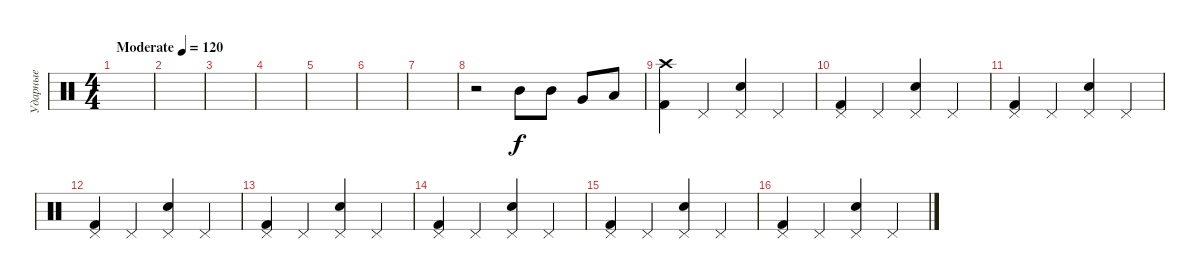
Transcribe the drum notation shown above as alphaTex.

\track ("Ударные" "Ударные") {instrument percussion}
\staff {score}
\articulation defaults
\ts (4 4)
\tempo (120 "Moderate")
\clef neutral
\ks c
|
|
|
|
|
|
|
r.2 "Mid Tom (hit)".8 "Mid Tom (hit)".8 "Very Low Tom (hit)".8 "Low Floor Tom (hit)".8 |
("Crash high (hit)" "Kick (hit) 2").4 "Pedal Hi-Hat (hit)".4 ("Pedal Hi-Hat (hit)" "Snare (hit) 2").4 "Pedal Hi-Hat (hit)".4 |
("Pedal Hi-Hat (hit)" "Kick (hit) 2").4 "Pedal Hi-Hat (hit)".4 ("Pedal Hi-Hat (hit)" "Snare (hit) 2").4 "Pedal Hi-Hat (hit)".4 |
("Pedal Hi-Hat (hit)" "Kick (hit) 2").4 "Pedal Hi-Hat (hit)".4 ("Pedal Hi-Hat (hit)" "Snare (hit) 2").4 "Pedal Hi-Hat (hit)".4 |
("Pedal Hi-Hat (hit)" "Kick (hit) 2").4 "Pedal Hi-Hat (hit)".4 ("Pedal Hi-Hat (hit)" "Snare (hit) 2").4 "Pedal Hi-Hat (hit)".4 |
("Pedal Hi-Hat (hit)" "Kick (hit) 2").4 "Pedal Hi-Hat (hit)".4 ("Pedal Hi-Hat (hit)" "Snare (hit) 2").4 "Pedal Hi-Hat (hit)".4 |
("Pedal Hi-Hat (hit)" "Kick (hit) 2").4 "Pedal Hi-Hat (hit)".4 ("Pedal Hi-Hat (hit)" "Snare (hit) 2").4 "Pedal Hi-Hat (hit)".4 |
("Pedal Hi-Hat (hit)" "Kick (hit) 2").4 "Pedal Hi-Hat (hit)".4 ("Pedal Hi-Hat (hit)" "Snare (hit) 2").4 "Pedal Hi-Hat (hit)".4 |
("Pedal Hi-Hat (hit)" "Kick (hit) 2").4 "Pedal Hi-Hat (hit)".4 ("Pedal Hi-Hat (hit)" "Snare (hit) 2").4 "Pedal Hi-Hat (hit)".4
